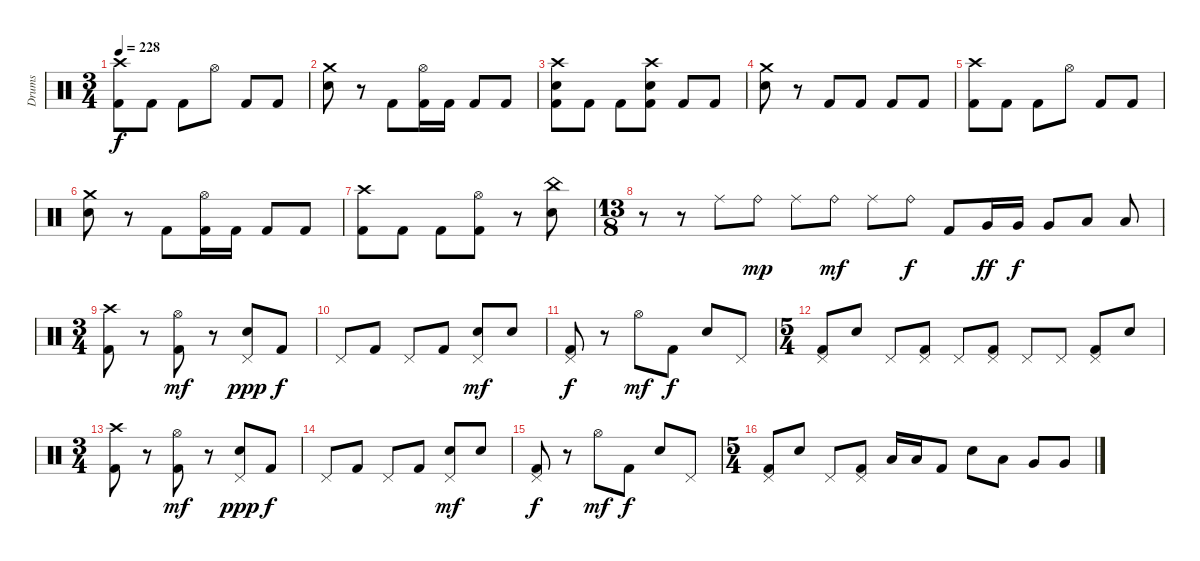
\track ("Drums" "Drums") {instrument percussion}
\staff {score}
\articulation defaults
\ts (3 4)
\tempo 228
\clef neutral
\ks c
("Crash high (hit)" "Kick (hit) 2").8{dy f} "Kick (hit) 2".8 "Kick (hit) 2".8 "Hi-Hat (open)".8 "Kick (hit) 2".8 "Kick (hit) 2".8 |
("Crash medium (hit)" "Electric Snare (hit)").8 r.8 "Kick (hit) 2".8 ("Hi-Hat (open)" "Kick (hit) 2").16 "Kick (hit) 2".16 "Kick (hit) 2".8 "Kick (hit) 2".8 |
("Crash high (hit)" "Electric Snare (hit)" "Kick (hit) 2").8 "Kick (hit) 2".8 "Kick (hit) 2".8 ("Crash high (hit)" "Electric Snare (hit)" "Kick (hit) 2").8 "Kick (hit) 2".8 "Kick (hit) 2".8 |
("Crash medium (hit)" "Electric Snare (hit)").8 r.8 "Kick (hit) 2".8 "Kick (hit) 2".8 "Kick (hit) 2".8 "Kick (hit) 2".8 |
("Crash high (hit)" "Kick (hit) 2").8 "Kick (hit) 2".8 "Kick (hit) 2".8 "Hi-Hat (open)".8 "Kick (hit) 2".8 "Kick (hit) 2".8 |
("Crash medium (hit)" "Electric Snare (hit)").8 r.8 "Kick (hit) 2".8 ("Hi-Hat (open)" "Kick (hit) 2").16 "Kick (hit) 2".16 "Kick (hit) 2".8 "Kick (hit) 2".8 |
("Crash high (hit)" "Kick (hit) 2").8 "Kick (hit) 2".8 "Kick (hit) 2".8 ("Hi-Hat (open)" "Kick (hit) 2").8 r.8 ("China (hit)" "Electric Snare (hit)").8 |
\ts (13 8)
r.8 r.8 "Ride (middle)".8 "Ride (bell)".8{dy mp} "Ride (middle)".8 "Ride (bell)".8{dy mf} "Ride (middle)".8 "Ride (bell)".8{dy f} "Kick (hit) 2".8 "Very Low Tom (hit)".16{dy ff} "Very Low Tom (hit)".16{dy f} "Very Low Tom (hit)".8 "Low Tom (hit)".8 "Low Tom (hit)".8 |
\ts (3 4)
("Crash high (hit)" "Kick (hit) 2").8 r.8 ("Hi-Hat (open)" "Kick (hit) 2").8{dy mf} r.8 ("Electric Snare (hit)" "Pedal Hi-Hat (hit)").8{dy ppp} "Kick (hit) 2".8{dy f} |
"Pedal Hi-Hat (hit)".8 "Kick (hit) 2".8 "Pedal Hi-Hat (hit)".8 "Kick (hit) 2".8 ("Electric Snare (hit)" "Pedal Hi-Hat (hit)").8{dy mf} "Electric Snare (hit)".8 |
("Pedal Hi-Hat (hit)" "Kick (hit) 2").8{dy f} r.8 "Hi-Hat (open)".8{dy mf} "Kick (hit) 2".8{dy f} "Electric Snare (hit)".8 "Pedal Hi-Hat (hit)".8 |
\ts (5 4)
("Kick (hit) 2" "Pedal Hi-Hat (hit)").8 "Electric Snare (hit)".8 "Pedal Hi-Hat (hit)".8 ("Pedal Hi-Hat (hit)" "Kick (hit) 2").8 "Pedal Hi-Hat (hit)".8 ("Pedal Hi-Hat (hit)" "Kick (hit) 2").8 "Pedal Hi-Hat (hit)".8 "Pedal Hi-Hat (hit)".8 ("Pedal Hi-Hat (hit)" "Kick (hit) 2").8 "Electric Snare (hit)".8 |
\ts (3 4)
("Crash high (hit)" "Kick (hit) 2").8 r.8 ("Hi-Hat (open)" "Kick (hit) 2").8{dy mf} r.8 ("Electric Snare (hit)" "Pedal Hi-Hat (hit)").8{dy ppp} "Kick (hit) 2".8{dy f} |
"Pedal Hi-Hat (hit)".8 "Kick (hit) 2".8 "Pedal Hi-Hat (hit)".8 "Kick (hit) 2".8 ("Electric Snare (hit)" "Pedal Hi-Hat (hit)").8{dy mf} "Electric Snare (hit)".8 |
("Pedal Hi-Hat (hit)" "Kick (hit) 2").8{dy f} r.8 "Hi-Hat (open)".8{dy mf} "Kick (hit) 2".8{dy f} "Electric Snare (hit)".8 "Pedal Hi-Hat (hit)".8 |
\ts (5 4)
("Kick (hit) 2" "Pedal Hi-Hat (hit)").8 "Electric Snare (hit)".8 "Pedal Hi-Hat (hit)".8 ("Pedal Hi-Hat (hit)" "Kick (hit) 2").8 "Low Tom (hit)".16 "Low Tom (hit)".16 "Kick (hit) 2".8 "Electric Snare (hit)".8 "Low Tom (hit)".8 "Very Low Tom (hit)".8 "Very Low Tom (hit)".8
